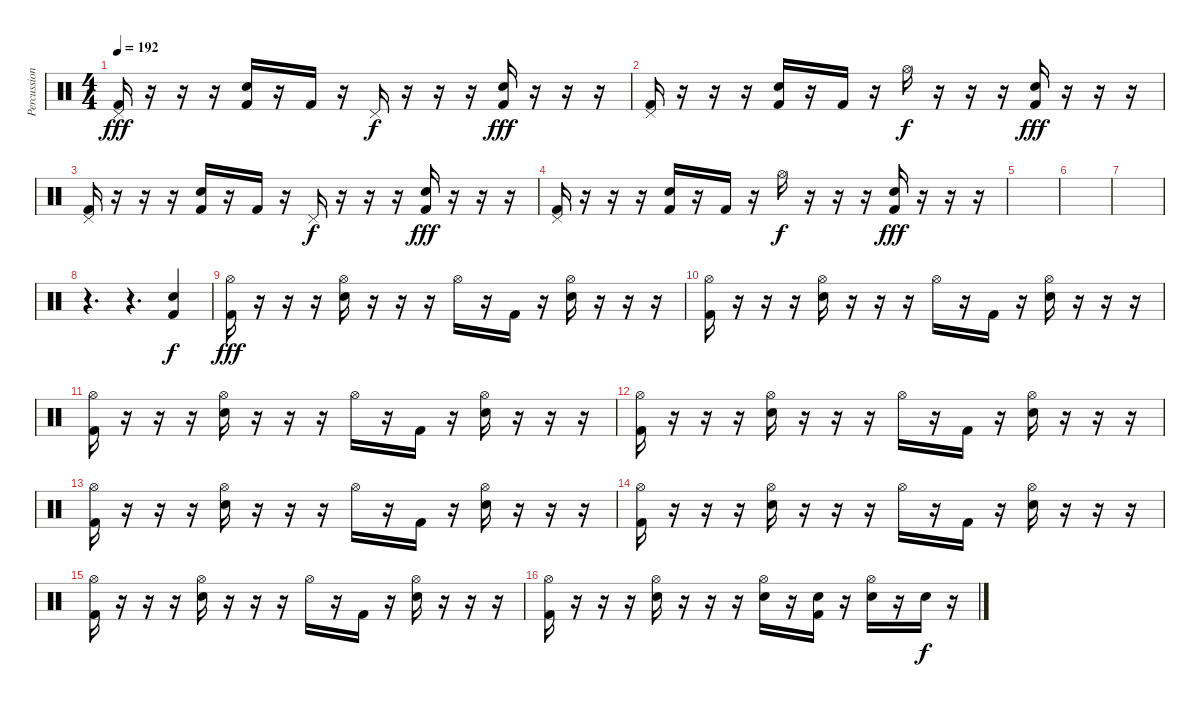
\track ("Percussion" "Percussion") {instrument percussion}
\staff {score}
\articulation defaults
\ts (4 4)
\tempo 192
\clef neutral
\ks c
("Pedal Hi-Hat (hit)" "Kick (hit) 2").16{dy fff} r.16 r.16 r.16 ("Snare (hit) 2" "Kick (hit) 2").16 r.16 "Kick (hit) 2".16 r.16 "Pedal Hi-Hat (hit)".16{dy f} r.16 r.16 r.16 ("Snare (hit) 2" "Kick (hit) 2").16{dy fff} r.16 r.16 r.16 |
("Pedal Hi-Hat (hit)" "Kick (hit) 2").16 r.16 r.16 r.16 ("Snare (hit) 2" "Kick (hit) 2").16 r.16 "Kick (hit) 2".16 r.16 "Hi-Hat (open)".16{dy f} r.16 r.16 r.16 ("Snare (hit) 2" "Kick (hit) 2").16{dy fff} r.16 r.16 r.16 |
("Pedal Hi-Hat (hit)" "Kick (hit) 2").16 r.16 r.16 r.16 ("Snare (hit) 2" "Kick (hit) 2").16 r.16 "Kick (hit) 2".16 r.16 "Pedal Hi-Hat (hit)".16{dy f} r.16 r.16 r.16 ("Snare (hit) 2" "Kick (hit) 2").16{dy fff} r.16 r.16 r.16 |
("Pedal Hi-Hat (hit)" "Kick (hit) 2").16 r.16 r.16 r.16 ("Snare (hit) 2" "Kick (hit) 2").16 r.16 "Kick (hit) 2".16 r.16 "Hi-Hat (open)".16{dy f} r.16 r.16 r.16 ("Snare (hit) 2" "Kick (hit) 2").16{dy fff} r.16 r.16 r.16 |
|
|
|
r.4{d} r.4{d} ("Kick (hit) 2" "Electric Snare (hit)").4{dy f} |
("Hi-Hat (open)" "Kick (hit) 2").16{dy fff} r.16 r.16 r.16 ("Hi-Hat (open)" "Electric Snare (hit)").16 r.16 r.16 r.16 "Hi-Hat (open)".16 r.16 "Kick (hit) 2".16 r.16 ("Hi-Hat (open)" "Electric Snare (hit)").16 r.16 r.16 r.16 |
("Hi-Hat (open)" "Kick (hit) 2").16 r.16 r.16 r.16 ("Hi-Hat (open)" "Electric Snare (hit)").16 r.16 r.16 r.16 "Hi-Hat (open)".16 r.16 "Kick (hit) 2".16 r.16 ("Hi-Hat (open)" "Electric Snare (hit)").16 r.16 r.16 r.16 |
("Hi-Hat (open)" "Kick (hit) 2").16 r.16 r.16 r.16 ("Hi-Hat (open)" "Electric Snare (hit)").16 r.16 r.16 r.16 "Hi-Hat (open)".16 r.16 "Kick (hit) 2".16 r.16 ("Hi-Hat (open)" "Electric Snare (hit)").16 r.16 r.16 r.16 |
("Hi-Hat (open)" "Kick (hit) 2").16 r.16 r.16 r.16 ("Hi-Hat (open)" "Electric Snare (hit)").16 r.16 r.16 r.16 "Hi-Hat (open)".16 r.16 "Kick (hit) 2".16 r.16 ("Hi-Hat (open)" "Electric Snare (hit)").16 r.16 r.16 r.16 |
("Hi-Hat (open)" "Kick (hit) 2").16 r.16 r.16 r.16 ("Hi-Hat (open)" "Electric Snare (hit)").16 r.16 r.16 r.16 "Hi-Hat (open)".16 r.16 "Kick (hit) 2".16 r.16 ("Hi-Hat (open)" "Electric Snare (hit)").16 r.16 r.16 r.16 |
("Hi-Hat (open)" "Kick (hit) 2").16 r.16 r.16 r.16 ("Hi-Hat (open)" "Electric Snare (hit)").16 r.16 r.16 r.16 "Hi-Hat (open)".16 r.16 "Kick (hit) 2".16 r.16 ("Hi-Hat (open)" "Electric Snare (hit)").16 r.16 r.16 r.16 |
("Hi-Hat (open)" "Kick (hit) 2").16 r.16 r.16 r.16 ("Hi-Hat (open)" "Electric Snare (hit)").16 r.16 r.16 r.16 "Hi-Hat (open)".16 r.16 "Kick (hit) 2".16 r.16 ("Hi-Hat (open)" "Electric Snare (hit)").16 r.16 r.16 r.16 |
("Hi-Hat (open)" "Kick (hit) 2").16 r.16 r.16 r.16 ("Hi-Hat (open)" "Electric Snare (hit)").16 r.16 r.16 r.16 ("Hi-Hat (open)" "Electric Snare (hit)").16 r.16 ("Electric Snare (hit)" "Kick (hit) 2").16 r.16 ("Hi-Hat (open)" "Electric Snare (hit)").16 r.16 "Electric Snare (hit)".16{dy f} r.16
